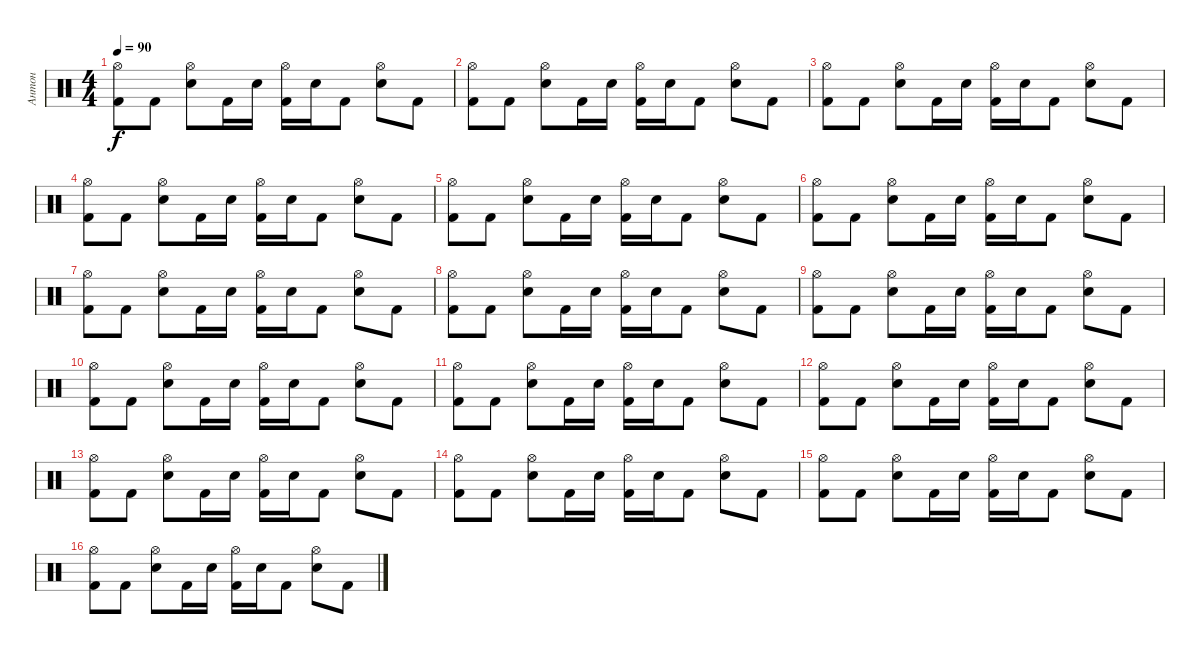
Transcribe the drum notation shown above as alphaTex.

\track ("Антон" "Антон") {instrument percussion}
\staff {score}
\articulation defaults
\ts (4 4)
\tempo 90
\clef neutral
\ks c
("Hi-Hat (open)" "Kick (hit) 2").8{dy f} "Kick (hit) 2".8 ("Hi-Hat (open)" "Electric Snare (hit)").8 "Kick (hit) 2".16 "Electric Snare (hit)".16 ("Hi-Hat (open)" "Kick (hit) 2").16 "Electric Snare (hit)".16 "Kick (hit) 2".8 ("Hi-Hat (open)" "Electric Snare (hit)").8 "Kick (hit) 2".8 |
("Hi-Hat (open)" "Kick (hit) 2").8 "Kick (hit) 2".8 ("Hi-Hat (open)" "Electric Snare (hit)").8 "Kick (hit) 2".16 "Electric Snare (hit)".16 ("Hi-Hat (open)" "Kick (hit) 2").16 "Electric Snare (hit)".16 "Kick (hit) 2".8 ("Hi-Hat (open)" "Electric Snare (hit)").8 "Kick (hit) 2".8 |
("Hi-Hat (open)" "Kick (hit) 2").8 "Kick (hit) 2".8 ("Hi-Hat (open)" "Electric Snare (hit)").8 "Kick (hit) 2".16 "Electric Snare (hit)".16 ("Hi-Hat (open)" "Kick (hit) 2").16 "Electric Snare (hit)".16 "Kick (hit) 2".8 ("Hi-Hat (open)" "Electric Snare (hit)").8 "Kick (hit) 2".8 |
("Hi-Hat (open)" "Kick (hit) 2").8 "Kick (hit) 2".8 ("Hi-Hat (open)" "Electric Snare (hit)").8 "Kick (hit) 2".16 "Electric Snare (hit)".16 ("Hi-Hat (open)" "Kick (hit) 2").16 "Electric Snare (hit)".16 "Kick (hit) 2".8 ("Hi-Hat (open)" "Electric Snare (hit)").8 "Kick (hit) 2".8 |
("Hi-Hat (open)" "Kick (hit) 2").8 "Kick (hit) 2".8 ("Hi-Hat (open)" "Electric Snare (hit)").8 "Kick (hit) 2".16 "Electric Snare (hit)".16 ("Hi-Hat (open)" "Kick (hit) 2").16 "Electric Snare (hit)".16 "Kick (hit) 2".8 ("Hi-Hat (open)" "Electric Snare (hit)").8 "Kick (hit) 2".8 |
("Hi-Hat (open)" "Kick (hit) 2").8 "Kick (hit) 2".8 ("Hi-Hat (open)" "Electric Snare (hit)").8 "Kick (hit) 2".16 "Electric Snare (hit)".16 ("Hi-Hat (open)" "Kick (hit) 2").16 "Electric Snare (hit)".16 "Kick (hit) 2".8 ("Hi-Hat (open)" "Electric Snare (hit)").8 "Kick (hit) 2".8 |
("Hi-Hat (open)" "Kick (hit) 2").8 "Kick (hit) 2".8 ("Hi-Hat (open)" "Electric Snare (hit)").8 "Kick (hit) 2".16 "Electric Snare (hit)".16 ("Hi-Hat (open)" "Kick (hit) 2").16 "Electric Snare (hit)".16 "Kick (hit) 2".8 ("Hi-Hat (open)" "Electric Snare (hit)").8 "Kick (hit) 2".8 |
("Hi-Hat (open)" "Kick (hit) 2").8 "Kick (hit) 2".8 ("Hi-Hat (open)" "Electric Snare (hit)").8 "Kick (hit) 2".16 "Electric Snare (hit)".16 ("Hi-Hat (open)" "Kick (hit) 2").16 "Electric Snare (hit)".16 "Kick (hit) 2".8 ("Hi-Hat (open)" "Electric Snare (hit)").8 "Kick (hit) 2".8 |
("Hi-Hat (open)" "Kick (hit) 2").8 "Kick (hit) 2".8 ("Hi-Hat (open)" "Electric Snare (hit)").8 "Kick (hit) 2".16 "Electric Snare (hit)".16 ("Hi-Hat (open)" "Kick (hit) 2").16 "Electric Snare (hit)".16 "Kick (hit) 2".8 ("Hi-Hat (open)" "Electric Snare (hit)").8 "Kick (hit) 2".8 |
("Hi-Hat (open)" "Kick (hit) 2").8 "Kick (hit) 2".8 ("Hi-Hat (open)" "Electric Snare (hit)").8 "Kick (hit) 2".16 "Electric Snare (hit)".16 ("Hi-Hat (open)" "Kick (hit) 2").16 "Electric Snare (hit)".16 "Kick (hit) 2".8 ("Hi-Hat (open)" "Electric Snare (hit)").8 "Kick (hit) 2".8 |
("Hi-Hat (open)" "Kick (hit) 2").8 "Kick (hit) 2".8 ("Hi-Hat (open)" "Electric Snare (hit)").8 "Kick (hit) 2".16 "Electric Snare (hit)".16 ("Hi-Hat (open)" "Kick (hit) 2").16 "Electric Snare (hit)".16 "Kick (hit) 2".8 ("Hi-Hat (open)" "Electric Snare (hit)").8 "Kick (hit) 2".8 |
("Hi-Hat (open)" "Kick (hit) 2").8 "Kick (hit) 2".8 ("Hi-Hat (open)" "Electric Snare (hit)").8 "Kick (hit) 2".16 "Electric Snare (hit)".16 ("Hi-Hat (open)" "Kick (hit) 2").16 "Electric Snare (hit)".16 "Kick (hit) 2".8 ("Hi-Hat (open)" "Electric Snare (hit)").8 "Kick (hit) 2".8 |
("Hi-Hat (open)" "Kick (hit) 2").8 "Kick (hit) 2".8 ("Hi-Hat (open)" "Electric Snare (hit)").8 "Kick (hit) 2".16 "Electric Snare (hit)".16 ("Hi-Hat (open)" "Kick (hit) 2").16 "Electric Snare (hit)".16 "Kick (hit) 2".8 ("Hi-Hat (open)" "Electric Snare (hit)").8 "Kick (hit) 2".8 |
("Hi-Hat (open)" "Kick (hit) 2").8 "Kick (hit) 2".8 ("Hi-Hat (open)" "Electric Snare (hit)").8 "Kick (hit) 2".16 "Electric Snare (hit)".16 ("Hi-Hat (open)" "Kick (hit) 2").16 "Electric Snare (hit)".16 "Kick (hit) 2".8 ("Hi-Hat (open)" "Electric Snare (hit)").8 "Kick (hit) 2".8 |
("Hi-Hat (open)" "Kick (hit) 2").8 "Kick (hit) 2".8 ("Hi-Hat (open)" "Electric Snare (hit)").8 "Kick (hit) 2".16 "Electric Snare (hit)".16 ("Hi-Hat (open)" "Kick (hit) 2").16 "Electric Snare (hit)".16 "Kick (hit) 2".8 ("Hi-Hat (open)" "Electric Snare (hit)").8 "Kick (hit) 2".8 |
("Hi-Hat (open)" "Kick (hit) 2").8 "Kick (hit) 2".8 ("Hi-Hat (open)" "Electric Snare (hit)").8 "Kick (hit) 2".16 "Electric Snare (hit)".16 ("Hi-Hat (open)" "Kick (hit) 2").16 "Electric Snare (hit)".16 "Kick (hit) 2".8 ("Hi-Hat (open)" "Electric Snare (hit)").8 "Kick (hit) 2".8
